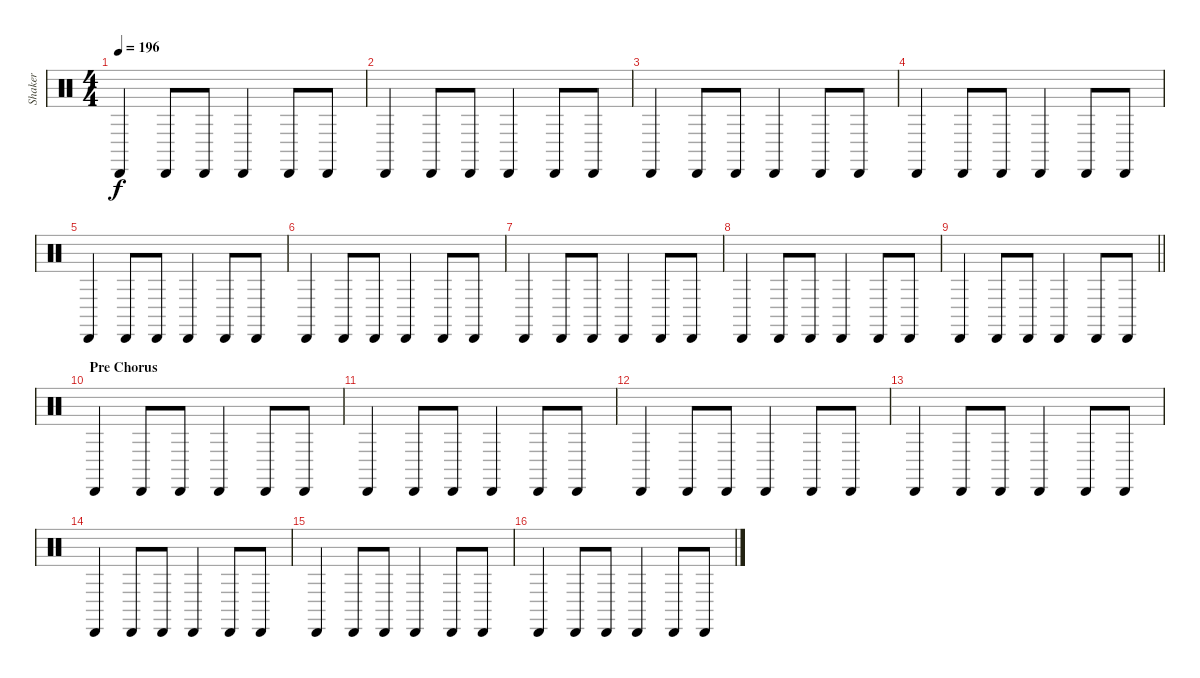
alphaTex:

\track ("Shaker" "Shaker") {instrument percussion bank 126}
\staff {score}
\articulation defaults
\ts (4 4)
\tempo 196
\clef neutral
\ks c "Cabasa (hit)".4{dy f} "Cabasa (hit)".8 "Cabasa (hit)".8 "Cabasa (hit)".4 "Cabasa (hit)".8 "Cabasa (hit)".8
|
"Cabasa (hit)".4 "Cabasa (hit)".8 "Cabasa (hit)".8 "Cabasa (hit)".4 "Cabasa (hit)".8 "Cabasa (hit)".8 |
"Cabasa (hit)".4 "Cabasa (hit)".8 "Cabasa (hit)".8 "Cabasa (hit)".4 "Cabasa (hit)".8 "Cabasa (hit)".8 |
"Cabasa (hit)".4 "Cabasa (hit)".8 "Cabasa (hit)".8 "Cabasa (hit)".4 "Cabasa (hit)".8 "Cabasa (hit)".8 |
"Cabasa (hit)".4 "Cabasa (hit)".8 "Cabasa (hit)".8 "Cabasa (hit)".4 "Cabasa (hit)".8 "Cabasa (hit)".8 |
"Cabasa (hit)".4 "Cabasa (hit)".8 "Cabasa (hit)".8 "Cabasa (hit)".4 "Cabasa (hit)".8 "Cabasa (hit)".8 |
"Cabasa (hit)".4 "Cabasa (hit)".8 "Cabasa (hit)".8 "Cabasa (hit)".4 "Cabasa (hit)".8 "Cabasa (hit)".8 |
"Cabasa (hit)".4 "Cabasa (hit)".8 "Cabasa (hit)".8 "Cabasa (hit)".4 "Cabasa (hit)".8 "Cabasa (hit)".8 |
\barLineRight lightlight "Cabasa (hit)".4 "Cabasa (hit)".8 "Cabasa (hit)".8 "Cabasa (hit)".4 "Cabasa (hit)".8 "Cabasa (hit)".8
|
\section ("" "Pre Chorus")
"Cabasa (hit)".4 "Cabasa (hit)".8 "Cabasa (hit)".8 "Cabasa (hit)".4 "Cabasa (hit)".8 "Cabasa (hit)".8 |
"Cabasa (hit)".4 "Cabasa (hit)".8 "Cabasa (hit)".8 "Cabasa (hit)".4 "Cabasa (hit)".8 "Cabasa (hit)".8 |
"Cabasa (hit)".4 "Cabasa (hit)".8 "Cabasa (hit)".8 "Cabasa (hit)".4 "Cabasa (hit)".8 "Cabasa (hit)".8 |
"Cabasa (hit)".4 "Cabasa (hit)".8 "Cabasa (hit)".8 "Cabasa (hit)".4 "Cabasa (hit)".8 "Cabasa (hit)".8 |
"Cabasa (hit)".4 "Cabasa (hit)".8 "Cabasa (hit)".8 "Cabasa (hit)".4 "Cabasa (hit)".8 "Cabasa (hit)".8 |
"Cabasa (hit)".4 "Cabasa (hit)".8 "Cabasa (hit)".8 "Cabasa (hit)".4 "Cabasa (hit)".8 "Cabasa (hit)".8 |
"Cabasa (hit)".4 "Cabasa (hit)".8 "Cabasa (hit)".8 "Cabasa (hit)".4 "Cabasa (hit)".8 "Cabasa (hit)".8
